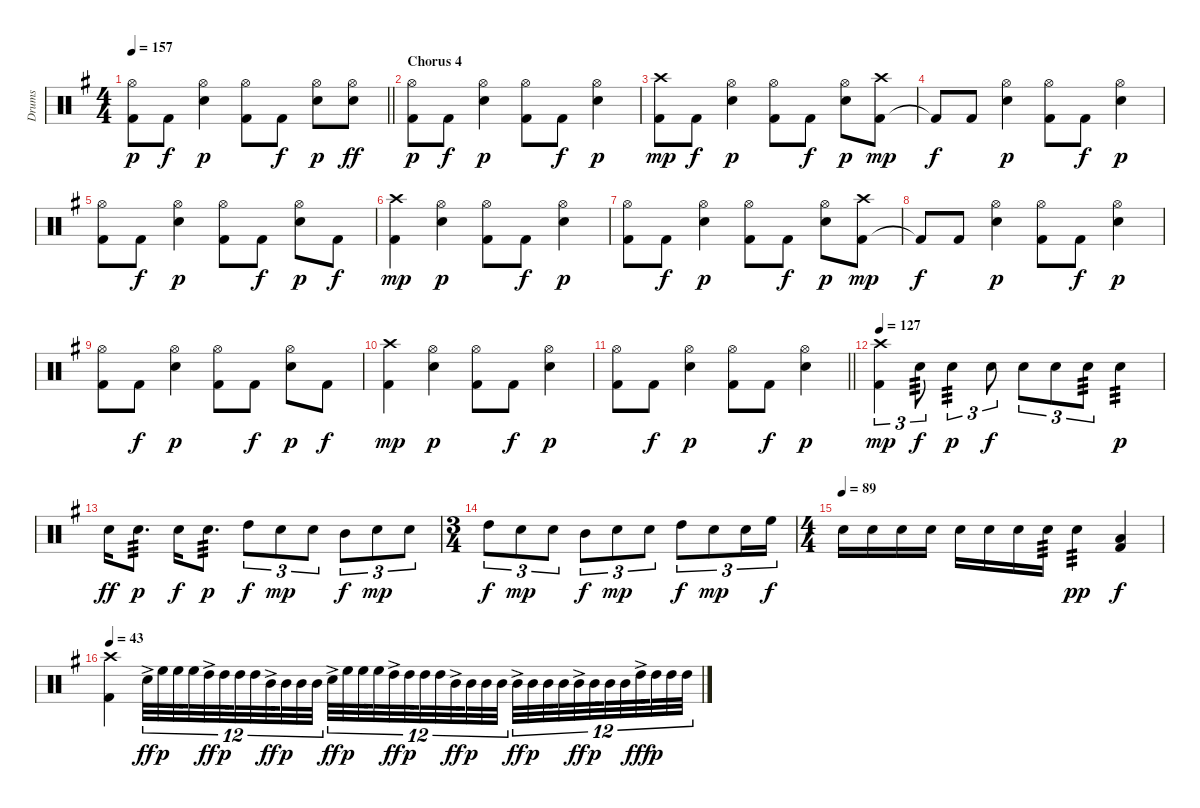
\track ("Drums" "Drums") {instrument percussion}
\staff {score}
\articulation defaults
\ts (4 4)
\tempo 157
\clef neutral
\barLineRight lightlight
\ks g
("Kick (hit) 2" "Hi-Hat (open)").8{dy p} "Kick (hit) 2".8{dy f} ("Electric Snare (hit)" "Hi-Hat (open)").4{dy p} ("Kick (hit) 2" "Hi-Hat (open)").8 "Kick (hit) 2".8{dy f} ("Electric Snare (hit)" "Hi-Hat (open)").8{dy p} ("Hi-Hat (open)" "Electric Snare (hit)").8{dy ff} |
\section ("" "Chorus 4")
("Kick (hit) 2" "Hi-Hat (open)").8{dy p} "Kick (hit) 2".8{dy f} ("Electric Snare (hit)" "Hi-Hat (open)").4{dy p} ("Kick (hit) 2" "Hi-Hat (open)").8 "Kick (hit) 2".8{dy f} ("Electric Snare (hit)" "Hi-Hat (open)").4{dy p} |
("Kick (hit) 2" "Crash high (hit)").8{dy mp} "Kick (hit) 2".8{dy f} ("Electric Snare (hit)" "Hi-Hat (open)").4{dy p} ("Kick (hit) 2" "Hi-Hat (open)").8 "Kick (hit) 2".8{dy f} ("Electric Snare (hit)" "Hi-Hat (open)").8{dy p} ("Kick (hit) 2" "Crash high (hit)").8{dy mp} |
"Kick (hit) 2"{t}.8{dy f} "Kick (hit) 2".8 ("Electric Snare (hit)" "Hi-Hat (open)").4{dy p} ("Kick (hit) 2" "Hi-Hat (open)").8 "Kick (hit) 2".8{dy f} ("Electric Snare (hit)" "Hi-Hat (open)").4{dy p} |
("Kick (hit) 2" "Hi-Hat (open)").8 "Kick (hit) 2".8{dy f} ("Electric Snare (hit)" "Hi-Hat (open)").4{dy p} ("Kick (hit) 2" "Hi-Hat (open)").8 "Kick (hit) 2".8{dy f} ("Electric Snare (hit)" "Hi-Hat (open)").8{dy p} "Kick (hit) 2".8{dy f} |
("Kick (hit) 2" "Crash high (hit)").4{dy mp} ("Electric Snare (hit)" "Hi-Hat (open)").4{dy p} ("Kick (hit) 2" "Hi-Hat (open)").8 "Kick (hit) 2".8{dy f} ("Electric Snare (hit)" "Hi-Hat (open)").4{dy p} |
("Kick (hit) 2" "Hi-Hat (open)").8 "Kick (hit) 2".8{dy f} ("Electric Snare (hit)" "Hi-Hat (open)").4{dy p} ("Kick (hit) 2" "Hi-Hat (open)").8 "Kick (hit) 2".8{dy f} ("Electric Snare (hit)" "Hi-Hat (open)").8{dy p} ("Kick (hit) 2" "Crash high (hit)").8{dy mp} |
"Kick (hit) 2"{t}.8{dy f} "Kick (hit) 2".8 ("Electric Snare (hit)" "Hi-Hat (open)").4{dy p} ("Kick (hit) 2" "Hi-Hat (open)").8 "Kick (hit) 2".8{dy f} ("Electric Snare (hit)" "Hi-Hat (open)").4{dy p} |
("Kick (hit) 2" "Hi-Hat (open)").8 "Kick (hit) 2".8{dy f} ("Electric Snare (hit)" "Hi-Hat (open)").4{dy p} ("Kick (hit) 2" "Hi-Hat (open)").8 "Kick (hit) 2".8{dy f} ("Electric Snare (hit)" "Hi-Hat (open)").8{dy p} "Kick (hit) 2".8{dy f} |
("Kick (hit) 2" "Crash high (hit)").4{dy mp} ("Electric Snare (hit)" "Hi-Hat (open)").4{dy p} ("Kick (hit) 2" "Hi-Hat (open)").8 "Kick (hit) 2".8{dy f} ("Electric Snare (hit)" "Hi-Hat (open)").4{dy p} |
\barLineRight lightlight
("Kick (hit) 2" "Hi-Hat (open)").8 "Kick (hit) 2".8{dy f} ("Electric Snare (hit)" "Hi-Hat (open)").4{dy p} ("Kick (hit) 2" "Hi-Hat (open)").8 "Kick (hit) 2".8{dy f} ("Electric Snare (hit)" "Hi-Hat (open)").4{dy p} |
\tempo 120
\tempo 127
("Kick (hit) 2" "Crash high (hit)").4{tu (3 2) dy mp} "Electric Snare (hit)".8{tu (3 2) tp 3 dy f} "Electric Snare (hit)".4{tu (3 2) tp 3 dy p} "Electric Snare (hit)".8{tu (3 2) dy f} "Electric Snare (hit)".8{tu (3 2)} "Electric Snare (hit)".8{tu (3 2)} "Electric Snare (hit)".8{tu (3 2) tp 3} "Electric Snare (hit)".4{tp 3 dy p} |
"Electric Snare (hit)".16{dy ff} "Electric Snare (hit)".8{d tp 3 dy p} "Electric Snare (hit)".16{dy f} "Electric Snare (hit)".8{d tp 3 dy p} "High Tom (hit)".8{tu (3 2) dy f} "Electric Snare (hit)".8{tu (3 2) dy mp} "Electric Snare (hit)".8{tu (3 2)} "Mid Tom (hit)".8{tu (3 2) dy f} "Electric Snare (hit)".8{tu (3 2) dy mp} "Electric Snare (hit)".8{tu (3 2)} |
\ts (3 4)
"High Tom (hit)".8{tu (3 2) dy f} "Electric Snare (hit)".8{tu (3 2) dy mp} "Electric Snare (hit)".8{tu (3 2)} "Mid Tom (hit)".8{tu (3 2) dy f} "Electric Snare (hit)".8{tu (3 2) dy mp} "Electric Snare (hit)".8{tu (3 2)} "High Tom (hit)".8{tu (3 2) dy f} "Electric Snare (hit)".8{tu (3 2) dy mp} "Electric Snare (hit)".16{tu (3 2)} "High Floor Tom (hit)".16{tu (3 2) dy f} |
\ts (4 4)
\tempo (89)
"Electric Snare (hit)".16 "Electric Snare (hit)".16 "Electric Snare (hit)".16 "Electric Snare (hit)".16 "Electric Snare (hit)".16 "Electric Snare (hit)".16 "Electric Snare (hit)".16 "Electric Snare (hit)".16{tp 3} "Electric Snare (hit)".4{tp 3 dy pp} ("Kick (hit) 2" "Low Tom (hit)").4{dy f} |
\tempo 43
("Kick (hit) 2" "Crash high (hit)").4 "Electric Snare (hit)"{ac}.32{tu (12 8) dy ff} "High Floor Tom (hit)".32{tu (12 8) dy p} "High Floor Tom (hit)".32{tu (12 8) beam splitsecondary} "High Floor Tom (hit)".32{tu (12 8)} "High Tom (hit)"{ac}.32{tu (12 8) dy ff} "High Tom (hit)".32{tu (12 8) dy p beam splitsecondary} "High Tom (hit)".32{tu (12 8)} "High Tom (hit)".32{tu (12 8)} "Mid Tom (hit)"{ac}.32{tu (12 8) dy ff beam splitsecondary} "Mid Tom (hit)".32{tu (12 8) dy p} "Mid Tom (hit)".32{tu (12 8)} "Mid Tom (hit)".32{tu (12 8)} "Electric Snare (hit)"{ac}.32{tu (12 8) dy ff} "High Floor Tom (hit)".32{tu (12 8) dy p} "High Floor Tom (hit)".32{tu (12 8) beam splitsecondary} "High Floor Tom (hit)".32{tu (12 8)} "High Tom (hit)"{ac}.32{tu (12 8) dy ff} "High Tom (hit)".32{tu (12 8) dy p beam splitsecondary} "High Tom (hit)".32{tu (12 8)} "High Tom (hit)".32{tu (12 8)} "Mid Tom (hit)"{ac}.32{tu (12 8) dy ff beam splitsecondary} "Mid Tom (hit)".32{tu (12 8) dy p} "Mid Tom (hit)".32{tu (12 8)} "Mid Tom (hit)".32{tu (12 8)} "Mid Tom (hit)"{ac}.32{tu (12 8) dy ff} "Mid Tom (hit)".32{tu (12 8) dy p} "Mid Tom (hit)".32{tu (12 8) beam splitsecondary} "Mid Tom (hit)".32{tu (12 8)} "Mid Tom (hit)"{ac}.32{tu (12 8) dy ff} "Mid Tom (hit)".32{tu (12 8) dy p beam splitsecondary} "Mid Tom (hit)".32{tu (12 8)} "Mid Tom (hit)".32{tu (12 8)} "High Tom (hit)"{ac}.32{tu (12 8) dy fff beam splitsecondary} "High Tom (hit)".32{tu (12 8) dy p} "High Tom (hit)".32{tu (12 8)} "High Tom (hit)".32{tu (12 8)}
